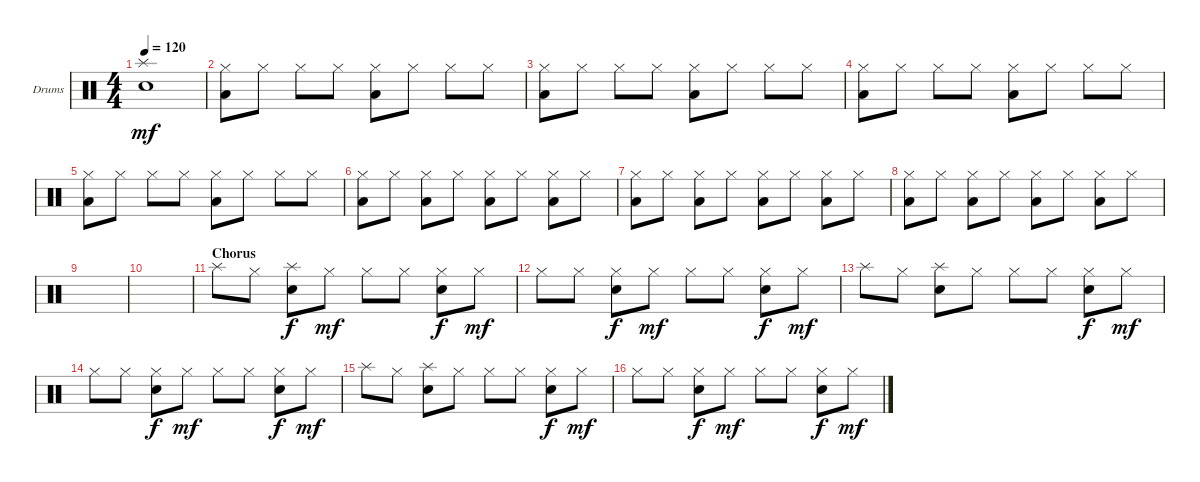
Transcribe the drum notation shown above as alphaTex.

\bracketExtendMode groupsimilarinstruments
\firstSystemTrackNameOrientation horizontal
\otherSystemsTrackNameOrientation horizontal
\track ("Drumkit" "Drums") {instrument percussion}
\staff {score}
\articulation defaults
\ts (4 4)
\tempo 120
\clef neutral
\ks c
("Snare (hit) 2" "Splash (hit)").1{dy mf} |
("Hi-Hat (closed)" "Low Tom (hit)").8 "Hi-Hat (closed)".8 "Hi-Hat (closed)".8 "Hi-Hat (closed)".8 ("Hi-Hat (closed)" "Low Tom (hit)").8 "Hi-Hat (closed)".8 "Hi-Hat (closed)".8 "Hi-Hat (closed)".8 |
("Hi-Hat (closed)" "Low Tom (hit)").8 "Hi-Hat (closed)".8 "Hi-Hat (closed)".8 "Hi-Hat (closed)".8 ("Hi-Hat (closed)" "Low Tom (hit)").8 "Hi-Hat (closed)".8 "Hi-Hat (closed)".8 "Hi-Hat (closed)".8 |
("Hi-Hat (closed)" "Low Tom (hit)").8 "Hi-Hat (closed)".8 "Hi-Hat (closed)".8 "Hi-Hat (closed)".8 ("Hi-Hat (closed)" "Low Tom (hit)").8 "Hi-Hat (closed)".8 "Hi-Hat (closed)".8 "Hi-Hat (closed)".8 |
("Hi-Hat (closed)" "Low Tom (hit)").8 "Hi-Hat (closed)".8 "Hi-Hat (closed)".8 "Hi-Hat (closed)".8 ("Hi-Hat (closed)" "Low Tom (hit)").8 "Hi-Hat (closed)".8 "Hi-Hat (closed)".8 "Hi-Hat (closed)".8 |
("Hi-Hat (closed)" "Low Tom (hit)").8 "Hi-Hat (closed)".8 ("Hi-Hat (closed)" "Low Tom (hit)").8 "Hi-Hat (closed)".8 ("Hi-Hat (closed)" "Low Tom (hit)").8 "Hi-Hat (closed)".8 ("Hi-Hat (closed)" "Low Tom (hit)").8 "Hi-Hat (closed)".8 |
("Hi-Hat (closed)" "Low Tom (hit)").8 "Hi-Hat (closed)".8 ("Hi-Hat (closed)" "Low Tom (hit)").8 "Hi-Hat (closed)".8 ("Hi-Hat (closed)" "Low Tom (hit)").8 "Hi-Hat (closed)".8 ("Hi-Hat (closed)" "Low Tom (hit)").8 "Hi-Hat (closed)".8 |
("Hi-Hat (closed)" "Low Tom (hit)").8 "Hi-Hat (closed)".8 ("Hi-Hat (closed)" "Low Tom (hit)").8 "Hi-Hat (closed)".8 ("Hi-Hat (closed)" "Low Tom (hit)").8 "Hi-Hat (closed)".8 ("Hi-Hat (closed)" "Low Tom (hit)").8 "Hi-Hat (closed)".8 |
|
|
\section ("" "Chorus")
"Splash (hit)".8 "Hi-Hat (closed)".8 ("Snare (hit) 2" "Splash (hit)").8{dy f} "Hi-Hat (closed)".8{dy mf} "Hi-Hat (closed)".8 "Hi-Hat (closed)".8 ("Hi-Hat (closed)" "Snare (hit) 2").8{dy f} "Hi-Hat (closed)".8{dy mf} |
"Hi-Hat (closed)".8 "Hi-Hat (closed)".8 ("Hi-Hat (closed)" "Snare (hit) 2").8{dy f} "Hi-Hat (closed)".8{dy mf} "Hi-Hat (closed)".8 "Hi-Hat (closed)".8 ("Hi-Hat (closed)" "Snare (hit) 2").8{dy f} "Hi-Hat (closed)".8{dy mf} |
"Splash (hit)".8 "Hi-Hat (closed)".8 ("Snare (hit) 2" "Splash (hit)").8 "Hi-Hat (closed)".8 "Hi-Hat (closed)".8 "Hi-Hat (closed)".8 ("Hi-Hat (closed)" "Snare (hit) 2").8{dy f} "Hi-Hat (closed)".8{dy mf} |
"Hi-Hat (closed)".8 "Hi-Hat (closed)".8 ("Hi-Hat (closed)" "Snare (hit) 2").8{dy f} "Hi-Hat (closed)".8{dy mf} "Hi-Hat (closed)".8 "Hi-Hat (closed)".8 ("Hi-Hat (closed)" "Snare (hit) 2").8{dy f} "Hi-Hat (closed)".8{dy mf} |
"Splash (hit)".8 "Hi-Hat (closed)".8 ("Snare (hit) 2" "Splash (hit)").8 "Hi-Hat (closed)".8 "Hi-Hat (closed)".8 "Hi-Hat (closed)".8 ("Hi-Hat (closed)" "Snare (hit) 2").8{dy f} "Hi-Hat (closed)".8{dy mf} |
"Hi-Hat (closed)".8 "Hi-Hat (closed)".8 ("Hi-Hat (closed)" "Snare (hit) 2").8{dy f} "Hi-Hat (closed)".8{dy mf} "Hi-Hat (closed)".8 "Hi-Hat (closed)".8 ("Hi-Hat (closed)" "Snare (hit) 2").8{dy f} "Hi-Hat (closed)".8{dy mf}
